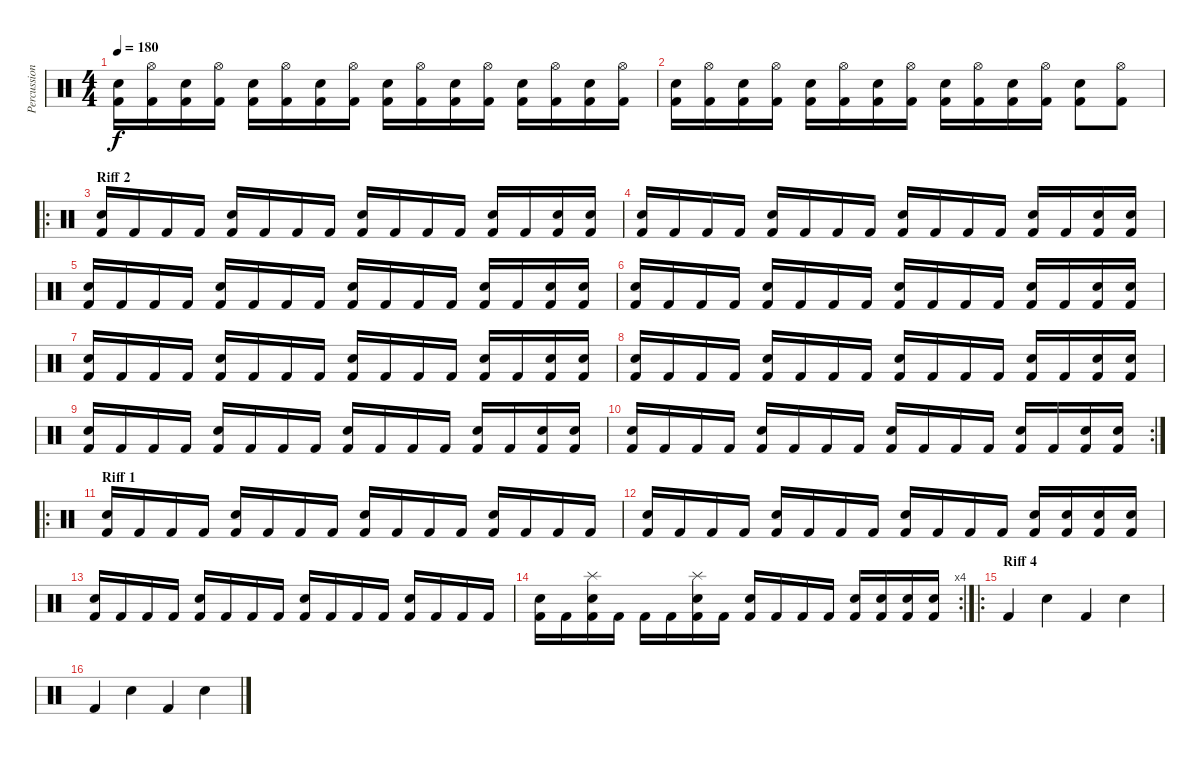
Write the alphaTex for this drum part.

\track ("Percussion" "Percussion") {instrument percussion}
\staff {score}
\articulation defaults
\ts (4 4)
\tempo 180
\clef neutral
\ks c
("Snare (hit) 2" "Kick (hit) 2").16{dy f} ("Hi-Hat (open)" "Kick (hit) 2").16 ("Snare (hit) 2" "Kick (hit) 2").16 ("Hi-Hat (open)" "Kick (hit) 2").16 ("Snare (hit) 2" "Kick (hit) 2").16 ("Hi-Hat (open)" "Kick (hit) 2").16 ("Snare (hit) 2" "Kick (hit) 2").16 ("Hi-Hat (open)" "Kick (hit) 2").16 ("Snare (hit) 2" "Kick (hit) 2").16 ("Hi-Hat (open)" "Kick (hit) 2").16 ("Snare (hit) 2" "Kick (hit) 2").16 ("Hi-Hat (open)" "Kick (hit) 2").16 ("Snare (hit) 2" "Kick (hit) 2").16 ("Hi-Hat (open)" "Kick (hit) 2").16 ("Snare (hit) 2" "Kick (hit) 2").16 ("Hi-Hat (open)" "Kick (hit) 2").16 |
("Snare (hit) 2" "Kick (hit) 2").16 ("Hi-Hat (open)" "Kick (hit) 2").16 ("Snare (hit) 2" "Kick (hit) 2").16 ("Hi-Hat (open)" "Kick (hit) 2").16 ("Snare (hit) 2" "Kick (hit) 2").16 ("Hi-Hat (open)" "Kick (hit) 2").16 ("Snare (hit) 2" "Kick (hit) 2").16 ("Hi-Hat (open)" "Kick (hit) 2").16 ("Snare (hit) 2" "Kick (hit) 2").16 ("Hi-Hat (open)" "Kick (hit) 2").16 ("Snare (hit) 2" "Kick (hit) 2").16 ("Hi-Hat (open)" "Kick (hit) 2").16 ("Snare (hit) 2" "Kick (hit) 2").8 ("Hi-Hat (open)" "Kick (hit) 2").8 |
\ro
\section ("" "Riff 2")
("Snare (hit) 2" "Kick (hit) 2").16 "Kick (hit) 2".16 "Kick (hit) 2".16 "Kick (hit) 2".16 ("Snare (hit) 2" "Kick (hit) 2").16 "Kick (hit) 2".16 "Kick (hit) 2".16 "Kick (hit) 2".16 ("Snare (hit) 2" "Kick (hit) 2").16 "Kick (hit) 2".16 "Kick (hit) 2".16 "Kick (hit) 2".16 ("Snare (hit) 2" "Kick (hit) 2").16 "Kick (hit) 2".16 ("Snare (hit) 2" "Kick (hit) 2").16 ("Snare (hit) 2" "Kick (hit) 2").16 |
("Snare (hit) 2" "Kick (hit) 2").16 "Kick (hit) 2".16 "Kick (hit) 2".16 "Kick (hit) 2".16 ("Snare (hit) 2" "Kick (hit) 2").16 "Kick (hit) 2".16 "Kick (hit) 2".16 "Kick (hit) 2".16 ("Snare (hit) 2" "Kick (hit) 2").16 "Kick (hit) 2".16 "Kick (hit) 2".16 "Kick (hit) 2".16 ("Snare (hit) 2" "Kick (hit) 2").16 "Kick (hit) 2".16 ("Snare (hit) 2" "Kick (hit) 2").16 ("Snare (hit) 2" "Kick (hit) 2").16 |
("Snare (hit) 2" "Kick (hit) 2").16 "Kick (hit) 2".16 "Kick (hit) 2".16 "Kick (hit) 2".16 ("Snare (hit) 2" "Kick (hit) 2").16 "Kick (hit) 2".16 "Kick (hit) 2".16 "Kick (hit) 2".16 ("Snare (hit) 2" "Kick (hit) 2").16 "Kick (hit) 2".16 "Kick (hit) 2".16 "Kick (hit) 2".16 ("Snare (hit) 2" "Kick (hit) 2").16 "Kick (hit) 2".16 ("Snare (hit) 2" "Kick (hit) 2").16 ("Snare (hit) 2" "Kick (hit) 2").16 |
("Snare (hit) 2" "Kick (hit) 2").16 "Kick (hit) 2".16 "Kick (hit) 2".16 "Kick (hit) 2".16 ("Snare (hit) 2" "Kick (hit) 2").16 "Kick (hit) 2".16 "Kick (hit) 2".16 "Kick (hit) 2".16 ("Snare (hit) 2" "Kick (hit) 2").16 "Kick (hit) 2".16 "Kick (hit) 2".16 "Kick (hit) 2".16 ("Snare (hit) 2" "Kick (hit) 2").16 "Kick (hit) 2".16 ("Snare (hit) 2" "Kick (hit) 2").16 ("Snare (hit) 2" "Kick (hit) 2").16 |
("Snare (hit) 2" "Kick (hit) 2").16 "Kick (hit) 2".16 "Kick (hit) 2".16 "Kick (hit) 2".16 ("Snare (hit) 2" "Kick (hit) 2").16 "Kick (hit) 2".16 "Kick (hit) 2".16 "Kick (hit) 2".16 ("Snare (hit) 2" "Kick (hit) 2").16 "Kick (hit) 2".16 "Kick (hit) 2".16 "Kick (hit) 2".16 ("Snare (hit) 2" "Kick (hit) 2").16 "Kick (hit) 2".16 ("Snare (hit) 2" "Kick (hit) 2").16 ("Snare (hit) 2" "Kick (hit) 2").16 |
("Snare (hit) 2" "Kick (hit) 2").16 "Kick (hit) 2".16 "Kick (hit) 2".16 "Kick (hit) 2".16 ("Snare (hit) 2" "Kick (hit) 2").16 "Kick (hit) 2".16 "Kick (hit) 2".16 "Kick (hit) 2".16 ("Snare (hit) 2" "Kick (hit) 2").16 "Kick (hit) 2".16 "Kick (hit) 2".16 "Kick (hit) 2".16 ("Snare (hit) 2" "Kick (hit) 2").16 "Kick (hit) 2".16 ("Snare (hit) 2" "Kick (hit) 2").16 ("Snare (hit) 2" "Kick (hit) 2").16 |
("Snare (hit) 2" "Kick (hit) 2").16 "Kick (hit) 2".16 "Kick (hit) 2".16 "Kick (hit) 2".16 ("Snare (hit) 2" "Kick (hit) 2").16 "Kick (hit) 2".16 "Kick (hit) 2".16 "Kick (hit) 2".16 ("Snare (hit) 2" "Kick (hit) 2").16 "Kick (hit) 2".16 "Kick (hit) 2".16 "Kick (hit) 2".16 ("Snare (hit) 2" "Kick (hit) 2").16 "Kick (hit) 2".16 ("Snare (hit) 2" "Kick (hit) 2").16 ("Snare (hit) 2" "Kick (hit) 2").16 |
\rc 2
("Snare (hit) 2" "Kick (hit) 2").16 "Kick (hit) 2".16 "Kick (hit) 2".16 "Kick (hit) 2".16 ("Snare (hit) 2" "Kick (hit) 2").16 "Kick (hit) 2".16 "Kick (hit) 2".16 "Kick (hit) 2".16 ("Snare (hit) 2" "Kick (hit) 2").16 "Kick (hit) 2".16 "Kick (hit) 2".16 "Kick (hit) 2".16 ("Snare (hit) 2" "Kick (hit) 2").16 "Kick (hit) 2".16 ("Snare (hit) 2" "Kick (hit) 2").16 ("Snare (hit) 2" "Kick (hit) 2").16 |
\ro
\section ("" "Riff 1")
("Snare (hit) 2" "Kick (hit) 2").16 "Kick (hit) 2".16 "Kick (hit) 2".16 "Kick (hit) 2".16 ("Snare (hit) 2" "Kick (hit) 2").16 "Kick (hit) 2".16 "Kick (hit) 2".16 "Kick (hit) 2".16 ("Snare (hit) 2" "Kick (hit) 2").16 "Kick (hit) 2".16 "Kick (hit) 2".16 "Kick (hit) 2".16 ("Snare (hit) 2" "Kick (hit) 2").16 "Kick (hit) 2".16 "Kick (hit) 2".16 "Kick (hit) 2".16 |
("Snare (hit) 2" "Kick (hit) 2").16 "Kick (hit) 2".16 "Kick (hit) 2".16 "Kick (hit) 2".16 ("Snare (hit) 2" "Kick (hit) 2").16 "Kick (hit) 2".16 "Kick (hit) 2".16 "Kick (hit) 2".16 ("Snare (hit) 2" "Kick (hit) 2").16 "Kick (hit) 2".16 "Kick (hit) 2".16 "Kick (hit) 2".16 ("Snare (hit) 2" "Kick (hit) 2").16 ("Snare (hit) 2" "Kick (hit) 2").16 ("Snare (hit) 2" "Kick (hit) 2").16 ("Snare (hit) 2" "Kick (hit) 2").16 |
("Snare (hit) 2" "Kick (hit) 2").16 "Kick (hit) 2".16 "Kick (hit) 2".16 "Kick (hit) 2".16 ("Snare (hit) 2" "Kick (hit) 2").16 "Kick (hit) 2".16 "Kick (hit) 2".16 "Kick (hit) 2".16 ("Snare (hit) 2" "Kick (hit) 2").16 "Kick (hit) 2".16 "Kick (hit) 2".16 "Kick (hit) 2".16 ("Snare (hit) 2" "Kick (hit) 2").16 "Kick (hit) 2".16 "Kick (hit) 2".16 "Kick (hit) 2".16 |
\rc 4
("Snare (hit) 2" "Kick (hit) 2").16 "Kick (hit) 2".16 ("Snare (hit) 2" "Splash (hit)" "Kick (hit) 2").16 "Kick (hit) 2".16 "Kick (hit) 2".16 "Kick (hit) 2".16 ("Snare (hit) 2" "Splash (hit)" "Kick (hit) 2").16 "Kick (hit) 2".16 ("Snare (hit) 2" "Kick (hit) 2").16 "Kick (hit) 2".16 "Kick (hit) 2".16 "Kick (hit) 2".16 ("Snare (hit) 2" "Kick (hit) 2").16 ("Snare (hit) 2" "Kick (hit) 2").16 ("Snare (hit) 2" "Kick (hit) 2").16 ("Snare (hit) 2" "Kick (hit) 2").16 |
\ro
\section ("" "Riff 4")
"Kick (hit) 2".4 "Snare (hit) 2".4 "Kick (hit) 2".4 "Snare (hit) 2".4 |
"Kick (hit) 2".4 "Snare (hit) 2".4 "Kick (hit) 2".4 "Snare (hit) 2".4
